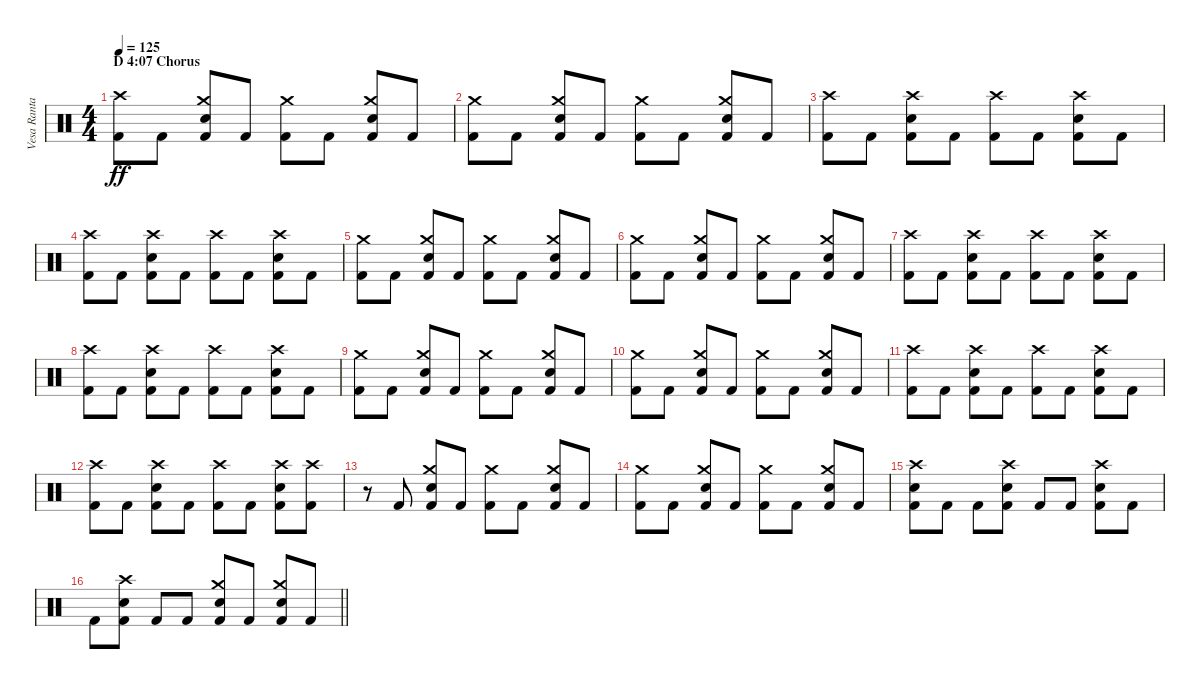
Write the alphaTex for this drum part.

\track ("Vesa Ranta (drums)" "Vesa Ranta") {instrument percussion}
\staff {score}
\articulation defaults
\ts (4 4)
\section ("" "D 4:07 Chorus")
\tempo 125
\clef neutral
\ks c
("Crash high (hit)" "Kick (hit) 2").8{dy ff} "Kick (hit) 2".8 ("Crash medium (hit)" "Electric Snare (hit)" "Kick (hit) 2").8 "Kick (hit) 2".8 ("Crash medium (hit)" "Kick (hit) 2").8 "Kick (hit) 2".8 ("Crash medium (hit)" "Electric Snare (hit)" "Kick (hit) 2").8 "Kick (hit) 2".8 |
("Crash medium (hit)" "Kick (hit) 2").8 "Kick (hit) 2".8 ("Crash medium (hit)" "Electric Snare (hit)" "Kick (hit) 2").8 "Kick (hit) 2".8 ("Crash medium (hit)" "Kick (hit) 2").8 "Kick (hit) 2".8 ("Crash medium (hit)" "Electric Snare (hit)" "Kick (hit) 2").8 "Kick (hit) 2".8 |
("Crash high (hit)" "Kick (hit) 2").8 "Kick (hit) 2".8 ("Crash high (hit)" "Electric Snare (hit)" "Kick (hit) 2").8 "Kick (hit) 2".8 ("Crash high (hit)" "Kick (hit) 2").8 "Kick (hit) 2".8 ("Crash high (hit)" "Electric Snare (hit)" "Kick (hit) 2").8 "Kick (hit) 2".8 |
("Crash high (hit)" "Kick (hit) 2").8 "Kick (hit) 2".8 ("Crash high (hit)" "Electric Snare (hit)" "Kick (hit) 2").8 "Kick (hit) 2".8 ("Crash high (hit)" "Kick (hit) 2").8 "Kick (hit) 2".8 ("Crash high (hit)" "Electric Snare (hit)" "Kick (hit) 2").8 "Kick (hit) 2".8 |
("Crash medium (hit)" "Kick (hit) 2").8 "Kick (hit) 2".8 ("Crash medium (hit)" "Electric Snare (hit)" "Kick (hit) 2").8 "Kick (hit) 2".8 ("Crash medium (hit)" "Kick (hit) 2").8 "Kick (hit) 2".8 ("Crash medium (hit)" "Electric Snare (hit)" "Kick (hit) 2").8 "Kick (hit) 2".8 |
("Crash medium (hit)" "Kick (hit) 2").8 "Kick (hit) 2".8 ("Crash medium (hit)" "Electric Snare (hit)" "Kick (hit) 2").8 "Kick (hit) 2".8 ("Crash medium (hit)" "Kick (hit) 2").8 "Kick (hit) 2".8 ("Crash medium (hit)" "Electric Snare (hit)" "Kick (hit) 2").8 "Kick (hit) 2".8 |
("Crash high (hit)" "Kick (hit) 2").8 "Kick (hit) 2".8 ("Crash high (hit)" "Electric Snare (hit)" "Kick (hit) 2").8 "Kick (hit) 2".8 ("Crash high (hit)" "Kick (hit) 2").8 "Kick (hit) 2".8 ("Crash high (hit)" "Electric Snare (hit)" "Kick (hit) 2").8 "Kick (hit) 2".8 |
("Crash high (hit)" "Kick (hit) 2").8 "Kick (hit) 2".8 ("Crash high (hit)" "Electric Snare (hit)" "Kick (hit) 2").8 "Kick (hit) 2".8 ("Crash high (hit)" "Kick (hit) 2").8 "Kick (hit) 2".8 ("Crash high (hit)" "Electric Snare (hit)" "Kick (hit) 2").8 "Kick (hit) 2".8 |
("Crash medium (hit)" "Kick (hit) 2").8 "Kick (hit) 2".8 ("Crash medium (hit)" "Electric Snare (hit)" "Kick (hit) 2").8 "Kick (hit) 2".8 ("Crash medium (hit)" "Kick (hit) 2").8 "Kick (hit) 2".8 ("Crash medium (hit)" "Electric Snare (hit)" "Kick (hit) 2").8 "Kick (hit) 2".8 |
("Crash medium (hit)" "Kick (hit) 2").8 "Kick (hit) 2".8 ("Crash medium (hit)" "Electric Snare (hit)" "Kick (hit) 2").8 "Kick (hit) 2".8 ("Crash medium (hit)" "Kick (hit) 2").8 "Kick (hit) 2".8 ("Crash medium (hit)" "Electric Snare (hit)" "Kick (hit) 2").8 "Kick (hit) 2".8 |
("Crash high (hit)" "Kick (hit) 2").8 "Kick (hit) 2".8 ("Crash high (hit)" "Electric Snare (hit)" "Kick (hit) 2").8 "Kick (hit) 2".8 ("Crash high (hit)" "Kick (hit) 2").8 "Kick (hit) 2".8 ("Crash high (hit)" "Electric Snare (hit)" "Kick (hit) 2").8 "Kick (hit) 2".8 |
("Crash high (hit)" "Kick (hit) 2").8 "Kick (hit) 2".8 ("Crash high (hit)" "Electric Snare (hit)" "Kick (hit) 2").8 "Kick (hit) 2".8 ("Crash high (hit)" "Kick (hit) 2").8 "Kick (hit) 2".8 ("Crash high (hit)" "Electric Snare (hit)" "Kick (hit) 2").8 ("Crash high (hit)" "Kick (hit) 2").8 |
r.8 "Kick (hit) 2".8 ("Crash medium (hit)" "Electric Snare (hit)" "Kick (hit) 2").8 "Kick (hit) 2".8 ("Crash medium (hit)" "Kick (hit) 2").8 "Kick (hit) 2".8 ("Crash medium (hit)" "Electric Snare (hit)" "Kick (hit) 2").8 "Kick (hit) 2".8 |
("Crash medium (hit)" "Kick (hit) 2").8 "Kick (hit) 2".8 ("Crash medium (hit)" "Electric Snare (hit)" "Kick (hit) 2").8 "Kick (hit) 2".8 ("Crash medium (hit)" "Kick (hit) 2").8 "Kick (hit) 2".8 ("Crash medium (hit)" "Electric Snare (hit)" "Kick (hit) 2").8 "Kick (hit) 2".8 |
("Crash high (hit)" "Electric Snare (hit)" "Kick (hit) 2").8 "Kick (hit) 2".8 "Kick (hit) 2".8 ("Crash high (hit)" "Electric Snare (hit)" "Kick (hit) 2").8 "Kick (hit) 2".8 "Kick (hit) 2".8 ("Crash high (hit)" "Electric Snare (hit)" "Kick (hit) 2").8 "Kick (hit) 2".8 |
\barLineRight lightlight "Kick (hit) 2".8
("Crash high (hit)" "Electric Snare (hit)" "Kick (hit) 2").8 "Kick (hit) 2".8 "Kick (hit) 2".8 ("Crash medium (hit)" "Electric Snare (hit)" "Kick (hit) 2").8 "Kick (hit) 2".8 ("Crash medium (hit)" "Electric Snare (hit)" "Kick (hit) 2").8 "Kick (hit) 2".8
